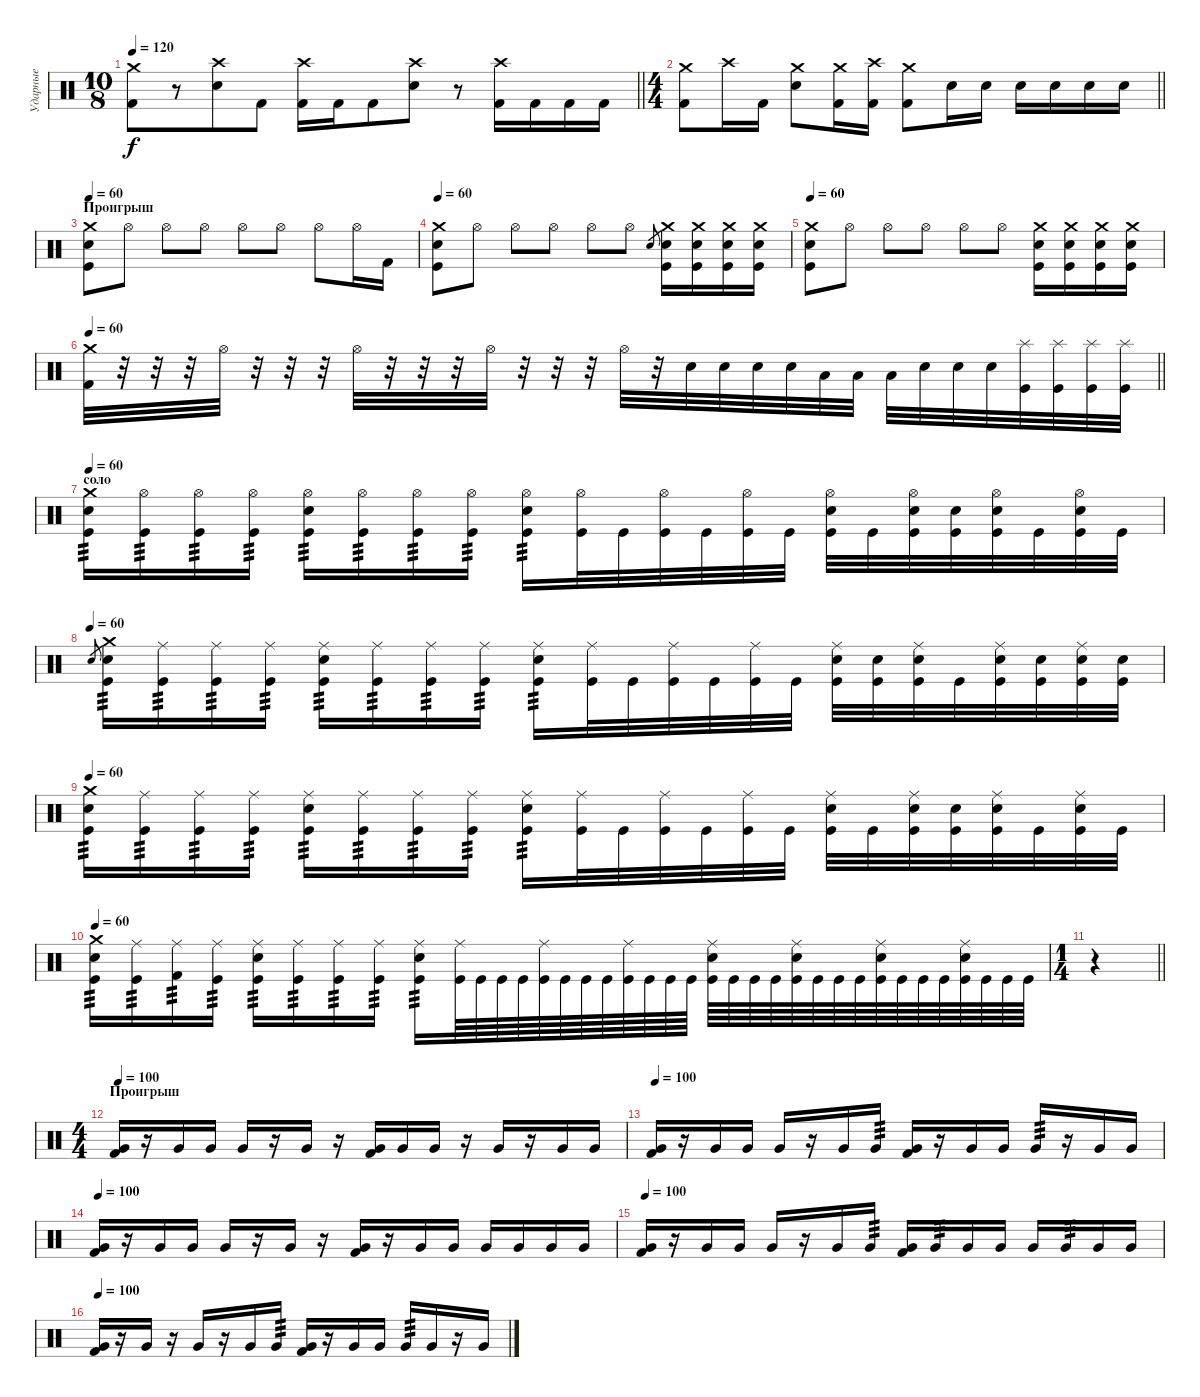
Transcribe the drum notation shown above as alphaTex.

\track ("Ударные" "Ударные") {instrument percussion}
\staff {score}
\articulation defaults
\ts (10 8)
\tempo 120
\clef neutral
\barLineRight lightlight
\ks c
("Crash medium (hit)" "Kick (hit) 2").8{dy f} r.8 ("Crash high (hit)" "Electric Snare (hit)").8 "Kick (hit) 2".8 ("Crash high (hit)" "Kick (hit) 2").16 "Kick (hit) 2".16 "Kick (hit) 2".8 ("Crash high (hit)" "Electric Snare (hit)").8 r.8 ("Crash high (hit)" "Kick (hit) 2").16 "Kick (hit) 2".16 "Kick (hit) 2".16 "Kick (hit) 2".16 |
\ts (4 4)
\barLineRight lightlight
("Crash medium (hit)" "Kick (hit) 2").8 "Crash high (hit)".16 "Kick (hit) 2".16 ("Crash medium (hit)" "Electric Snare (hit)").8 ("Crash medium (hit)" "Kick (hit) 2").16 ("Crash high (hit)" "Kick (hit) 2").16 ("Crash medium (hit)" "Kick (hit) 2").8 "Electric Snare (hit)".16 "Electric Snare (hit)".16 "Electric Snare (hit)".16 "Electric Snare (hit)".16 "Electric Snare (hit)".16 "Electric Snare (hit)".16 |
\section ("" "Проигрыш")
\tempo 60
("Crash medium (hit)" "Kick (hit)" "Electric Snare (hit)").8 "Hi-Hat (open)".8 "Hi-Hat (open)".8 "Hi-Hat (open)".8 "Hi-Hat (open)".8 "Hi-Hat (open)".8 "Hi-Hat (open)".8 "Hi-Hat (open)".16 "Kick (hit) 2".16 |
\tempo 60
("Crash medium (hit)" "Kick (hit)" "Electric Snare (hit)").8 "Hi-Hat (open)".8 "Hi-Hat (open)".8 "Hi-Hat (open)".8 "Hi-Hat (open)".8 "Hi-Hat (open)".8 "Electric Snare (hit)".8{gr} ("Crash medium (hit)" "Kick (hit)" "Electric Snare (hit)").16 ("Crash medium (hit)" "Kick (hit)" "Electric Snare (hit)").16 ("Crash medium (hit)" "Kick (hit)" "Electric Snare (hit)").16 ("Crash medium (hit)" "Kick (hit)" "Electric Snare (hit)").16 |
\tempo 60
("Crash medium (hit)" "Kick (hit)" "Electric Snare (hit)").8 "Hi-Hat (open)".8 "Hi-Hat (open)".8 "Hi-Hat (open)".8 "Hi-Hat (open)".8 "Hi-Hat (open)".8 ("Crash medium (hit)" "Kick (hit)" "Electric Snare (hit)").16 ("Crash medium (hit)" "Kick (hit)" "Electric Snare (hit)").16 ("Crash medium (hit)" "Kick (hit)" "Electric Snare (hit)").16 ("Crash medium (hit)" "Kick (hit)" "Electric Snare (hit)").16 |
\tempo 60
\barLineRight lightlight
("Crash medium (hit)" "Kick (hit) 2").32 r.32 r.32 r.32 "Hi-Hat (open)".32 r.32 r.32 r.32 "Hi-Hat (open)".32 r.32 r.32 r.32 "Hi-Hat (open)".32 r.32 r.32 r.32 "Hi-Hat (open)".32 r.32 "Electric Snare (hit)".32 "Electric Snare (hit)".32 "Electric Snare (hit)".32 "Electric Snare (hit)".32 "Low Floor Tom (hit)".32 "Low Floor Tom (hit)".32 "Low Floor Tom (hit)".32 "Electric Snare (hit)".32 "Electric Snare (hit)".32 "Electric Snare (hit)".32 ("Splash (hit)" "Kick (hit)").32 ("Splash (hit)" "Kick (hit)").32 ("Splash (hit)" "Kick (hit)").32 ("Splash (hit)" "Kick (hit)").32 |
\section ("" "соло")
\tempo 60
("Crash medium (hit)" "Electric Snare (hit)" "Kick (hit)").16{tp 3} ("Hi-Hat (open)" "Kick (hit)").16{tp 3} ("Hi-Hat (open)" "Kick (hit)").16{tp 3} ("Hi-Hat (open)" "Kick (hit)").16{tp 3} ("Hi-Hat (open)" "Electric Snare (hit)" "Kick (hit)").16{tp 3} ("Hi-Hat (open)" "Kick (hit)").16{tp 3} ("Hi-Hat (open)" "Kick (hit)").16{tp 3} ("Hi-Hat (open)" "Kick (hit)").16{tp 3} ("Hi-Hat (open)" "Electric Snare (hit)" "Kick (hit)").16{tp 3} ("Hi-Hat (open)" "Kick (hit)").32 "Kick (hit)".32 ("Hi-Hat (open)" "Kick (hit)").32 "Kick (hit)".32 ("Hi-Hat (open)" "Kick (hit)").32 "Kick (hit)".32 ("Hi-Hat (open)" "Electric Snare (hit)" "Kick (hit)").32 "Kick (hit)".32 ("Hi-Hat (open)" "Electric Snare (hit)" "Kick (hit)").32 ("Electric Snare (hit)" "Kick (hit)").32 ("Hi-Hat (open)" "Electric Snare (hit)" "Kick (hit)").32 "Kick (hit)".32 ("Hi-Hat (open)" "Electric Snare (hit)" "Kick (hit)").32 "Kick (hit)".32 |
\tempo (60)
"Electric Snare (hit)".8{gr} ("Crash medium (hit)" "Electric Snare (hit)" "Kick (hit)").16{tp 3} ("Ride (middle)" "Kick (hit)").16{tp 3} ("Ride (middle)" "Kick (hit)").16{tp 3} ("Ride (middle)" "Kick (hit)").16{tp 3} ("Ride (middle)" "Electric Snare (hit)" "Kick (hit)").16{tp 3} ("Ride (middle)" "Kick (hit)").16{tp 3} ("Ride (middle)" "Kick (hit)").16{tp 3} ("Ride (middle)" "Kick (hit)").16{tp 3} ("Ride (middle)" "Electric Snare (hit)" "Kick (hit)").16{tp 3} ("Ride (middle)" "Kick (hit)").32 "Kick (hit)".32 ("Ride (middle)" "Kick (hit)").32 "Kick (hit)".32 ("Ride (middle)" "Kick (hit)").32 "Kick (hit)".32 ("Ride (middle)" "Electric Snare (hit)" "Kick (hit)").32 ("Electric Snare (hit)" "Kick (hit)").32 ("Ride (middle)" "Electric Snare (hit)" "Kick (hit)").32 "Kick (hit)".32 ("Ride (middle)" "Electric Snare (hit)" "Kick (hit)").32 ("Electric Snare (hit)" "Kick (hit)").32 ("Ride (middle)" "Electric Snare (hit)" "Kick (hit)").32 ("Electric Snare (hit)" "Kick (hit)").32 |
\tempo 60
("Crash medium (hit)" "Electric Snare (hit)" "Kick (hit)").16{tp 3} ("Ride (middle)" "Kick (hit)").16{tp 3} ("Ride (middle)" "Kick (hit)").16{tp 3} ("Ride (middle)" "Kick (hit)").16{tp 3} ("Ride (middle)" "Electric Snare (hit)" "Kick (hit)").16{tp 3} ("Ride (middle)" "Kick (hit)").16{tp 3} ("Ride (middle)" "Kick (hit)").16{tp 3} ("Ride (middle)" "Kick (hit)").16{tp 3} ("Ride (middle)" "Electric Snare (hit)" "Kick (hit)").16{tp 3} ("Ride (middle)" "Kick (hit)").32 "Kick (hit)".32 ("Ride (middle)" "Kick (hit)").32 "Kick (hit)".32 ("Ride (middle)" "Kick (hit)").32 "Kick (hit)".32 ("Ride (middle)" "Electric Snare (hit)" "Kick (hit)").32 "Kick (hit)".32 ("Ride (middle)" "Electric Snare (hit)" "Kick (hit)").32 ("Electric Snare (hit)" "Kick (hit)").32 ("Ride (middle)" "Electric Snare (hit)" "Kick (hit)").32 "Kick (hit)".32 ("Ride (middle)" "Electric Snare (hit)" "Kick (hit)").32 "Kick (hit)".32 |
\tempo 60
("Crash medium (hit)" "Electric Snare (hit)" "Kick (hit)").16{tp 3} ("Ride (middle)" "Kick (hit)").16{tp 3} ("Ride (middle)" "Kick (hit) 2").16{tp 3} ("Ride (middle)" "Kick (hit)").16{tp 3} ("Ride (middle)" "Electric Snare (hit)" "Kick (hit)").16{tp 3} ("Ride (middle)" "Kick (hit)").16{tp 3} ("Ride (middle)" "Kick (hit)").16{tp 3} ("Ride (middle)" "Kick (hit)").16{tp 3} ("Ride (middle)" "Electric Snare (hit)" "Kick (hit)").16{tp 3} ("Ride (middle)" "Kick (hit)").64 "Kick (hit)".64 "Kick (hit)".64 "Kick (hit)".64 ("Ride (middle)" "Kick (hit)").64 "Kick (hit)".64 "Kick (hit)".64 "Kick (hit)".64 ("Ride (middle)" "Kick (hit)").64 "Kick (hit)".64 "Kick (hit)".64 "Kick (hit)".64 ("Ride (middle)" "Electric Snare (hit)" "Kick (hit)").64 "Kick (hit)".64 "Kick (hit)".64 "Kick (hit)".64 ("Ride (middle)" "Electric Snare (hit)" "Kick (hit)").64 "Kick (hit)".64 "Kick (hit)".64 "Kick (hit)".64 ("Ride (middle)" "Electric Snare (hit)" "Kick (hit)").64 "Kick (hit)".64 "Kick (hit)".64 "Kick (hit)".64 ("Ride (middle)" "Electric Snare (hit)" "Kick (hit)").64 "Kick (hit)".64 "Kick (hit)".64 "Kick (hit)".64 |
\ts (1 4)
\barLineRight lightlight
r.4 |
\ts (4 4)
\section ("" "Проигрыш")
\tempo 100
("Very Low Tom (hit)" "Kick (hit) 2").16{volume 16} r.16 "Very Low Tom (hit)".16 "Very Low Tom (hit)".16 "Very Low Tom (hit)".16 r.16 "Very Low Tom (hit)".16 r.16 ("Very Low Tom (hit)" "Kick (hit) 2").16 "Very Low Tom (hit)".16 "Very Low Tom (hit)".16 r.16 "Very Low Tom (hit)".16 r.16 "Very Low Tom (hit)".16 "Very Low Tom (hit)".16 |
\tempo 100
("Very Low Tom (hit)" "Kick (hit) 2").16{volume 16} r.16 "Very Low Tom (hit)".16 "Very Low Tom (hit)".16 "Very Low Tom (hit)".16 r.16 "Very Low Tom (hit)".16 "Very Low Tom (hit)".16{tp 3} ("Very Low Tom (hit)" "Kick (hit) 2").16 r.16 "Very Low Tom (hit)".16 "Very Low Tom (hit)".16 "Very Low Tom (hit)".16{tp 3} r.16 "Very Low Tom (hit)".16 "Very Low Tom (hit)".16 |
\tempo 100
("Very Low Tom (hit)" "Kick (hit) 2").16{volume 16} r.16 "Very Low Tom (hit)".16 "Very Low Tom (hit)".16 "Very Low Tom (hit)".16 r.16 "Very Low Tom (hit)".16 r.16 ("Very Low Tom (hit)" "Kick (hit) 2").16 r.16 "Very Low Tom (hit)".16 "Very Low Tom (hit)".16 "Very Low Tom (hit)".16 "Very Low Tom (hit)".16 "Very Low Tom (hit)".16 "Very Low Tom (hit)".16 |
\tempo 100
("Very Low Tom (hit)" "Kick (hit) 2").16{volume 16} r.16 "Very Low Tom (hit)".16 "Very Low Tom (hit)".16 "Very Low Tom (hit)".16 r.16 "Very Low Tom (hit)".16 "Very Low Tom (hit)".16{tp 3} ("Very Low Tom (hit)" "Kick (hit) 2").16 "Very Low Tom (hit)".16{tp 3} "Very Low Tom (hit)".16 "Very Low Tom (hit)".16 "Very Low Tom (hit)".16 "Very Low Tom (hit)".16{tp 3} "Very Low Tom (hit)".16 "Very Low Tom (hit)".16 |
\tempo 100
("Very Low Tom (hit)" "Kick (hit) 2").16{volume 16} r.16 "Very Low Tom (hit)".16 r.16 "Very Low Tom (hit)".16 r.16 "Very Low Tom (hit)".16 "Very Low Tom (hit)".16{tp 3} ("Very Low Tom (hit)" "Kick (hit) 2").16 r.16 "Very Low Tom (hit)".16 "Very Low Tom (hit)".16 "Very Low Tom (hit)".16{tp 3} "Very Low Tom (hit)".16 r.16 "Very Low Tom (hit)".16
